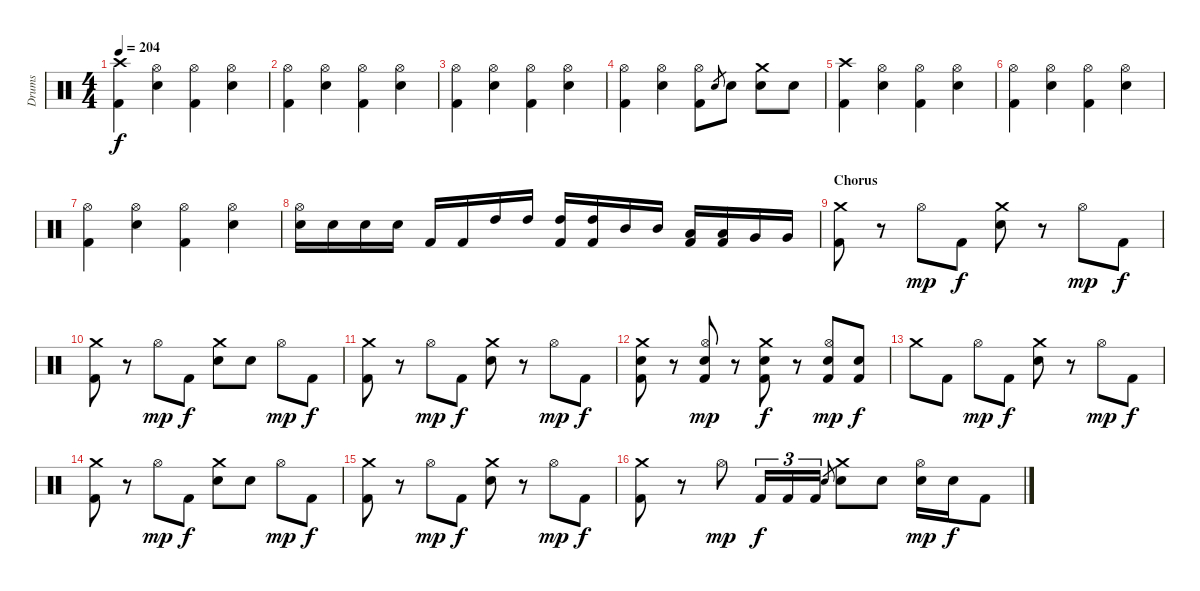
\track ("Drums" "Drums") {instrument percussion}
\staff {score}
\articulation defaults
\ts (4 4)
\tempo 204
\clef neutral
\ks c
("Crash high (hit)" "Kick (hit) 2").4{dy f} ("Hi-Hat (open)" "Electric Snare (hit)").4 ("Hi-Hat (open)" "Kick (hit) 2").4 ("Hi-Hat (open)" "Electric Snare (hit)").4 |
("Hi-Hat (open)" "Kick (hit) 2").4 ("Hi-Hat (open)" "Electric Snare (hit)").4 ("Hi-Hat (open)" "Kick (hit) 2").4 ("Hi-Hat (open)" "Electric Snare (hit)").4 |
("Hi-Hat (open)" "Kick (hit) 2").4 ("Hi-Hat (open)" "Electric Snare (hit)").4 ("Hi-Hat (open)" "Kick (hit) 2").4 ("Hi-Hat (open)" "Electric Snare (hit)").4 |
("Hi-Hat (open)" "Kick (hit) 2").4 ("Hi-Hat (open)" "Electric Snare (hit)").4 ("Hi-Hat (open)" "Kick (hit) 2").8 "Electric Snare (hit)".8{gr} "Electric Snare (hit)".8 ("Crash medium (hit)" "Electric Snare (hit)").8 "Electric Snare (hit)".8 |
("Crash high (hit)" "Kick (hit) 2").4 ("Hi-Hat (open)" "Electric Snare (hit)").4 ("Hi-Hat (open)" "Kick (hit) 2").4 ("Hi-Hat (open)" "Electric Snare (hit)").4 |
("Hi-Hat (open)" "Kick (hit) 2").4 ("Hi-Hat (open)" "Electric Snare (hit)").4 ("Hi-Hat (open)" "Kick (hit) 2").4 ("Hi-Hat (open)" "Electric Snare (hit)").4 |
("Hi-Hat (open)" "Kick (hit) 2").4 ("Hi-Hat (open)" "Electric Snare (hit)").4 ("Hi-Hat (open)" "Kick (hit) 2").4 ("Hi-Hat (open)" "Electric Snare (hit)").4 |
("Hi-Hat (open)" "Electric Snare (hit)").16 "Electric Snare (hit)".16 "Electric Snare (hit)".16 "Electric Snare (hit)".16 "Kick (hit) 2".16 "Kick (hit) 2".16 "High Tom (hit)".16 "High Tom (hit)".16 ("High Tom (hit)" "Kick (hit) 2").16 ("High Tom (hit)" "Kick (hit) 2").16 "Mid Tom (hit)".16 "Mid Tom (hit)".16 ("Low Tom (hit)" "Kick (hit) 2").16 ("Low Tom (hit)" "Kick (hit) 2").16 "Very Low Tom (hit)".16 "Very Low Tom (hit)".16 |
\section ("" "Chorus")
("Crash medium (hit)" "Kick (hit) 2").8 r.8 "Hi-Hat (open)".8{dy mp} "Kick (hit) 2".8{dy f} ("Crash medium (hit)" "Electric Snare (hit)").8 r.8 "Hi-Hat (open)".8{dy mp} "Kick (hit) 2".8{dy f} |
("Crash medium (hit)" "Kick (hit) 2").8 r.8 "Hi-Hat (open)".8{dy mp} "Kick (hit) 2".8{dy f} ("Crash medium (hit)" "Electric Snare (hit)").8 "Electric Snare (hit)".8 "Hi-Hat (open)".8{dy mp} "Kick (hit) 2".8{dy f} |
("Crash medium (hit)" "Kick (hit) 2").8 r.8 "Hi-Hat (open)".8{dy mp} "Kick (hit) 2".8{dy f} ("Crash medium (hit)" "Electric Snare (hit)").8 r.8 "Hi-Hat (open)".8{dy mp} "Kick (hit) 2".8{dy f} |
("Crash medium (hit)" "Electric Snare (hit)" "Kick (hit) 2").8 r.8 ("Hi-Hat (open)" "Electric Snare (hit)" "Kick (hit) 2").8{dy mp} r.8 ("Crash medium (hit)" "Electric Snare (hit)" "Kick (hit) 2").8{dy f} r.8 ("Hi-Hat (open)" "Electric Snare (hit)" "Kick (hit) 2").8{dy mp} ("Electric Snare (hit)" "Kick (hit) 2").8{dy f} |
"Crash medium (hit)".8 "Kick (hit) 2".8 "Hi-Hat (open)".8{dy mp} "Kick (hit) 2".8{dy f} ("Crash medium (hit)" "Electric Snare (hit)").8 r.8 "Hi-Hat (open)".8{dy mp} "Kick (hit) 2".8{dy f} |
("Crash medium (hit)" "Kick (hit) 2").8 r.8 "Hi-Hat (open)".8{dy mp} "Kick (hit) 2".8{dy f} ("Crash medium (hit)" "Electric Snare (hit)").8 "Electric Snare (hit)".8 "Hi-Hat (open)".8{dy mp} "Kick (hit) 2".8{dy f} |
("Crash medium (hit)" "Kick (hit) 2").8 r.8 "Hi-Hat (open)".8{dy mp} "Kick (hit) 2".8{dy f} ("Crash medium (hit)" "Electric Snare (hit)").8 r.8 "Hi-Hat (open)".8{dy mp} "Kick (hit) 2".8{dy f} |
("Crash medium (hit)" "Kick (hit) 2").8 r.8 "Hi-Hat (open)".8{dy mp} "Kick (hit) 2".16{tu (3 2) dy f} "Kick (hit) 2".16{tu (3 2)} "Kick (hit) 2".16{tu (3 2)} "Electric Snare (hit)".8{gr} ("Crash medium (hit)" "Electric Snare (hit)").8 "Electric Snare (hit)".8 ("Hi-Hat (open)" "Electric Snare (hit)").16{dy mp} "Electric Snare (hit)".16{dy f} "Kick (hit) 2".8
